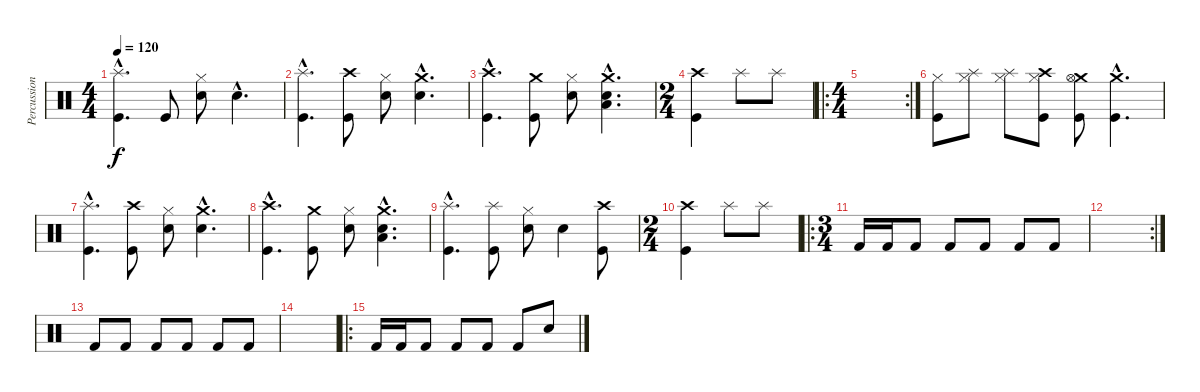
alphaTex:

\track ("Percussion" "Percussion") {instrument percussion}
\staff {score}
\articulation defaults
\ts (4 4)
\tempo 120
\clef neutral
\ks c
("Kick (hit)"{hac} "Splash (hit)"{hac}).4{d dy f} "Kick (hit)".8 ("Snare (hit) 2" "Hi-Hat (closed)").8 "Snare (hit) 2"{hac}.4{d} |
("Kick (hit)"{hac} "Splash (hit)"{hac}).4{d} ("Kick (hit)" "Crash high (hit)").8 ("Snare (hit) 2" "Hi-Hat (closed)").8 ("Snare (hit) 2"{hac} "Crash medium (hit)"{hac}).4{d} |
("Kick (hit)"{hac} "Crash high (hit)"{hac}).4{d} ("Kick (hit)" "Crash medium (hit)").8 ("Snare (hit) 2" "Hi-Hat (closed)").8 ("Snare (hit) 2"{hac} "Low Tom (hit)"{hac} "Crash medium (hit)"{hac}).4{d} |
\ts (2 4)
("Kick (hit)" "Crash high (hit)").4 "Splash (hit)".8 "Splash (hit)".8 |
\ro
\rc 2
\ts (4 4)
|
("Kick (hit)" "Hi-Hat (closed)").8 ("Hi-Hat (closed)" "Splash (hit)").8 ("Hi-Hat (closed)" "Splash (hit)").8 ("Kick (hit)" "Hi-Hat (closed)" "Crash high (hit)").8 ("Kick (hit)" "Crash medium (hit)" "Hi-Hat (open)").8 ("Kick (hit)"{hac} "Crash medium (hit)"{hac}).4{d} |
("Kick (hit)"{hac} "Splash (hit)"{hac}).4{d} ("Kick (hit)" "Crash high (hit)").8 ("Snare (hit) 2" "Hi-Hat (closed)").8 ("Snare (hit) 2"{hac} "Crash medium (hit)"{hac}).4{d} |
("Kick (hit)"{hac} "Crash high (hit)"{hac}).4{d} ("Kick (hit)" "Crash medium (hit)").8 ("Snare (hit) 2" "Hi-Hat (closed)").8 ("Snare (hit) 2"{hac} "Low Tom (hit)"{hac} "Crash medium (hit)"{hac}).4{d} |
("Kick (hit)"{hac} "Splash (hit)"{hac}).4{d} ("Kick (hit)" "Splash (hit)").8 ("Snare (hit) 2" "Hi-Hat (closed)").8 "Snare (hit) 2".4 ("Kick (hit)" "Crash high (hit)").8 |
\ts (2 4)
("Kick (hit)" "Crash high (hit)").4 "Splash (hit)".8 "Splash (hit)".8 |
\ro
\ts (3 4)
"Kick (hit) 2".16 "Kick (hit) 2".16 "Kick (hit) 2".8 "Kick (hit) 2".8 "Kick (hit) 2".8 "Kick (hit) 2".8 "Kick (hit) 2".8 |
\rc 2
|
"Kick (hit) 2".8 "Kick (hit) 2".8 "Kick (hit) 2".8 "Kick (hit) 2".8 "Kick (hit) 2".8 "Kick (hit) 2".8 |
|
\ro "Kick (hit) 2".16 "Kick (hit) 2".16 "Kick (hit) 2".8 "Kick (hit) 2".8 "Kick (hit) 2".8 "Kick (hit) 2".8 "Snare (hit) 2".8
